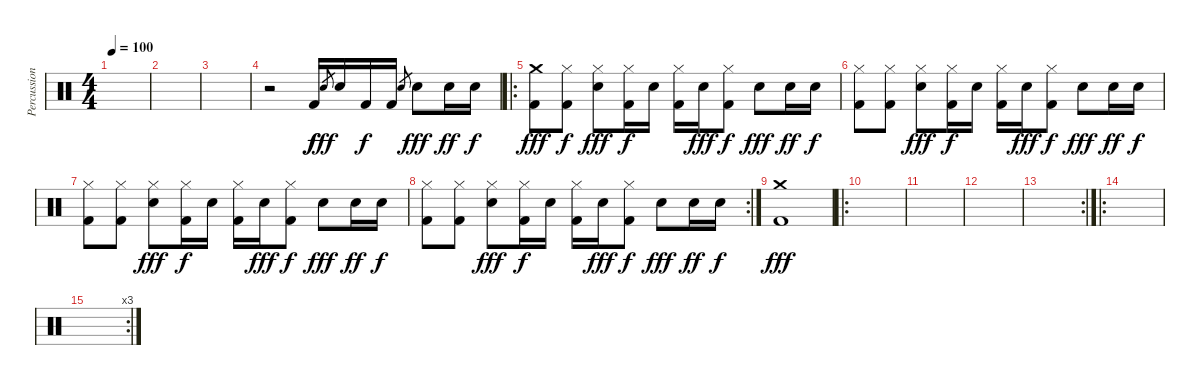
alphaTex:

\track ("Percussion" "Percussion") {instrument percussion}
\staff {score}
\articulation defaults
\ts (4 4)
\tempo 100
\clef neutral
\ks c
|
|
|
r.2 "Kick (hit) 2".16 "Electric Snare (hit)".8{gr dy fff} "Electric Snare (hit)".16 "Kick (hit) 2".16{dy f} "Kick (hit) 2".16 "Electric Snare (hit)".8{gr} "Electric Snare (hit)".8{dy fff} "Electric Snare (hit)".16{dy ff} "Electric Snare (hit)".16{dy f} |
\ro
("Crash medium (hit)" "Kick (hit) 2").8{dy fff} ("Hi-Hat (closed)" "Kick (hit) 2").8{dy f} ("Hi-Hat (closed)" "Electric Snare (hit)").8{dy fff} ("Hi-Hat (closed)" "Kick (hit) 2").16{dy f} "Electric Snare (hit)".16 ("Hi-Hat (closed)" "Kick (hit) 2").16 "Electric Snare (hit)".16{dy fff} ("Hi-Hat (closed)" "Kick (hit) 2").8{dy f} "Electric Snare (hit)".8{dy fff} "Electric Snare (hit)".16{dy ff} "Electric Snare (hit)".16{dy f} |
("Hi-Hat (closed)" "Kick (hit) 2").8 ("Hi-Hat (closed)" "Kick (hit) 2").8 ("Hi-Hat (closed)" "Electric Snare (hit)").8{dy fff} ("Hi-Hat (closed)" "Kick (hit) 2").16{dy f} "Electric Snare (hit)".16 ("Hi-Hat (closed)" "Kick (hit) 2").16 "Electric Snare (hit)".16{dy fff} ("Hi-Hat (closed)" "Kick (hit) 2").8{dy f} "Electric Snare (hit)".8{dy fff} "Electric Snare (hit)".16{dy ff} "Electric Snare (hit)".16{dy f} |
("Hi-Hat (closed)" "Kick (hit) 2").8 ("Hi-Hat (closed)" "Kick (hit) 2").8 ("Hi-Hat (closed)" "Electric Snare (hit)").8{dy fff} ("Hi-Hat (closed)" "Kick (hit) 2").16{dy f} "Electric Snare (hit)".16 ("Hi-Hat (closed)" "Kick (hit) 2").16 "Electric Snare (hit)".16{dy fff} ("Hi-Hat (closed)" "Kick (hit) 2").8{dy f} "Electric Snare (hit)".8{dy fff} "Electric Snare (hit)".16{dy ff} "Electric Snare (hit)".16{dy f} |
\rc 2
("Hi-Hat (closed)" "Kick (hit) 2").8 ("Hi-Hat (closed)" "Kick (hit) 2").8 ("Hi-Hat (closed)" "Electric Snare (hit)").8{dy fff} ("Hi-Hat (closed)" "Kick (hit) 2").16{dy f} "Electric Snare (hit)".16 ("Hi-Hat (closed)" "Kick (hit) 2").16 "Electric Snare (hit)".16{dy fff} ("Hi-Hat (closed)" "Kick (hit) 2").8{dy f} "Electric Snare (hit)".8{dy fff} "Electric Snare (hit)".16{dy ff} "Electric Snare (hit)".16{dy f} |
("Crash medium (hit)" "Kick (hit) 2").1{dy fff} |
\ro
|
|
|
\rc 2
|
\ro
|
\rc 3
